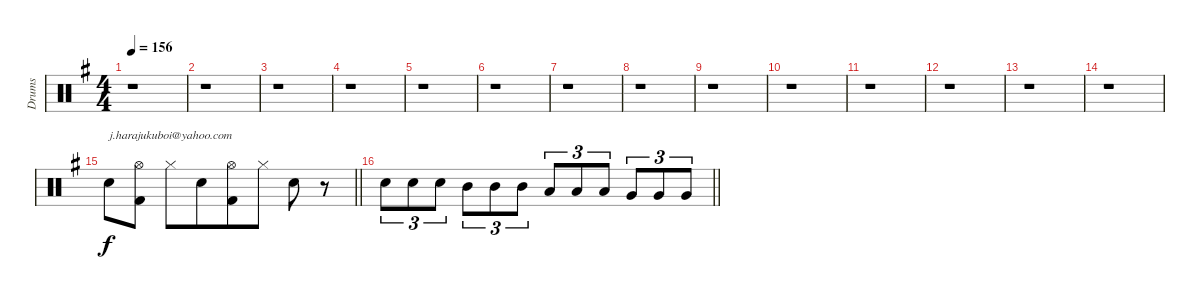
\track ("Drums" "Drums") {instrument percussion}
\staff {score}
\articulation defaults
\ts (4 4)
\tempo 156
\clef neutral
\ks g
r.1{dy f} |
r.1 |
r.1 |
r.1 |
r.1 |
r.1 |
r.1 |
r.1 |
r.1 |
r.1 |
r.1 |
r.1 |
r.1 |
r.1 |
\barLineRight lightlight "Snare (hit) 2".8{txt "j.harajukuboi@yahoo.com"}
("Hi-Hat (open)" "Kick (hit) 2").8 "Hi-Hat (closed)".8 "Snare (hit) 2".8{beam merge} ("Hi-Hat (open)" "Kick (hit) 2").8 "Hi-Hat (closed)".8 "Snare (hit) 2".8 r.8 |
\barLineRight lightlight "Snare (hit) 2".8{tu (3 2)} "Snare (hit) 2".8{tu (3 2)} "Snare (hit) 2".8{tu (3 2)} "Mid Tom (hit)".8{tu (3 2)} "Mid Tom (hit)".8{tu (3 2)} "Mid Tom (hit)".8{tu (3 2)} "Low Tom (hit)".8{tu (3 2)} "Low Tom (hit)".8{tu (3 2)} "Low Tom (hit)".8{tu (3 2)} "Very Low Tom (hit)".8{tu (3 2)} "Very Low Tom (hit)".8{tu (3 2)} "Very Low Tom (hit)".8{tu (3 2)}
